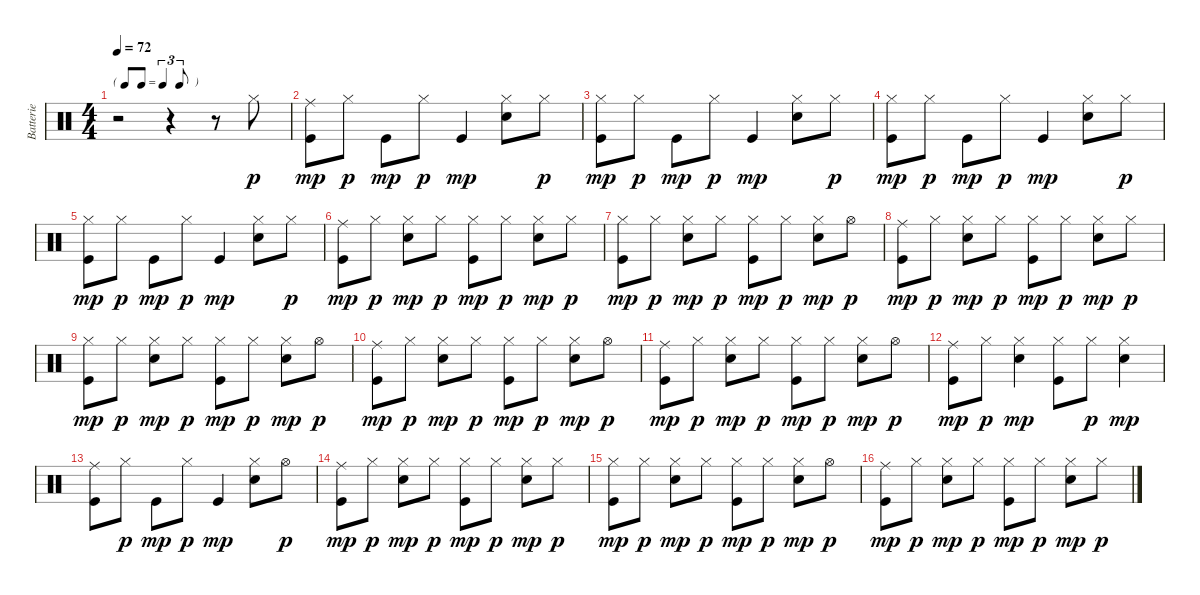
\track ("Batterie" "Batterie") {instrument percussion}
\staff {score}
\articulation defaults
\ts (4 4)
\tf triplet8th
\tempo 72
\clef neutral
\ks c
r.2{dy p} r.4 r.8 "Hi-Hat (closed)".8 |
("Ride (middle)" "Kick (hit)").8{dy mp} "Hi-Hat (closed)".8{dy p} "Kick (hit)".8{dy mp} "Hi-Hat (closed)".8{dy p} "Kick (hit)".4{dy mp} ("Hi-Hat (closed)" "Snare (hit) 2").8 "Hi-Hat (closed)".8{dy p} |
("Hi-Hat (closed)" "Kick (hit)").8{dy mp} "Hi-Hat (closed)".8{dy p} "Kick (hit)".8{dy mp} "Hi-Hat (closed)".8{dy p} "Kick (hit)".4{dy mp} ("Hi-Hat (closed)" "Snare (hit) 2").8 "Hi-Hat (closed)".8{dy p} |
("Hi-Hat (closed)" "Kick (hit)").8{dy mp} "Hi-Hat (closed)".8{dy p} "Kick (hit)".8{dy mp} "Hi-Hat (closed)".8{dy p} "Kick (hit)".4{dy mp} ("Hi-Hat (closed)" "Snare (hit) 2").8 "Hi-Hat (closed)".8{dy p} |
("Hi-Hat (closed)" "Kick (hit)").8{dy mp} "Hi-Hat (closed)".8{dy p} "Kick (hit)".8{dy mp} "Hi-Hat (closed)".8{dy p} "Kick (hit)".4{dy mp} ("Hi-Hat (closed)" "Snare (hit) 2").8 "Hi-Hat (closed)".8{dy p} |
("Ride (middle)" "Kick (hit)").8{dy mp} "Hi-Hat (closed)".8{dy p} ("Hi-Hat (closed)" "Snare (hit) 2").8{dy mp} "Hi-Hat (closed)".8{dy p} ("Hi-Hat (closed)" "Kick (hit)").8{dy mp} "Hi-Hat (closed)".8{dy p} ("Hi-Hat (closed)" "Snare (hit) 2").8{dy mp} "Hi-Hat (closed)".8{dy p} |
("Hi-Hat (closed)" "Kick (hit)").8{dy mp} "Hi-Hat (closed)".8{dy p} ("Hi-Hat (closed)" "Snare (hit) 2").8{dy mp} "Hi-Hat (closed)".8{dy p} ("Hi-Hat (closed)" "Kick (hit)").8{dy mp} "Hi-Hat (closed)".8{dy p} ("Hi-Hat (closed)" "Snare (hit) 2").8{dy mp} "Hi-Hat (open)".8{dy p} |
("Ride (middle)" "Kick (hit)").8{dy mp} "Hi-Hat (closed)".8{dy p} ("Hi-Hat (closed)" "Snare (hit) 2").8{dy mp} "Hi-Hat (closed)".8{dy p} ("Hi-Hat (closed)" "Kick (hit)").8{dy mp} "Hi-Hat (closed)".8{dy p} ("Hi-Hat (closed)" "Snare (hit) 2").8{dy mp} "Hi-Hat (closed)".8{dy p} |
("Hi-Hat (closed)" "Kick (hit)").8{dy mp} "Hi-Hat (closed)".8{dy p} ("Hi-Hat (closed)" "Snare (hit) 2").8{dy mp} "Hi-Hat (closed)".8{dy p} ("Hi-Hat (closed)" "Kick (hit)").8{dy mp} "Hi-Hat (closed)".8{dy p} ("Hi-Hat (closed)" "Snare (hit) 2").8{dy mp} "Hi-Hat (open)".8{dy p} |
("Ride (middle)" "Kick (hit)").8{dy mp} "Hi-Hat (closed)".8{dy p} ("Hi-Hat (closed)" "Snare (hit) 2").8{dy mp} "Hi-Hat (closed)".8{dy p} ("Hi-Hat (closed)" "Kick (hit)").8{dy mp} "Hi-Hat (closed)".8{dy p} ("Hi-Hat (closed)" "Snare (hit) 2").8{dy mp} "Hi-Hat (open)".8{dy p} |
("Ride (middle)" "Kick (hit)").8{dy mp} "Hi-Hat (closed)".8{dy p} ("Hi-Hat (closed)" "Snare (hit) 2").8{dy mp} "Hi-Hat (closed)".8{dy p} ("Hi-Hat (closed)" "Kick (hit)").8{dy mp} "Hi-Hat (closed)".8{dy p} ("Hi-Hat (closed)" "Snare (hit) 2").8{dy mp} "Hi-Hat (open)".8{dy p} |
("Ride (middle)" "Kick (hit)").8{dy mp} "Hi-Hat (closed)".8{dy p} ("Hi-Hat (closed)" "Snare (hit) 2").4{dy mp} ("Hi-Hat (closed)" "Kick (hit)").8 "Hi-Hat (closed)".8{dy p} ("Hi-Hat (closed)" "Snare (hit) 2").4{dy mp} |
("Ride (middle)" "Kick (hit)").8 "Hi-Hat (closed)".8{dy p} "Kick (hit)".8{dy mp} "Hi-Hat (closed)".8{dy p} "Kick (hit)".4{dy mp} ("Hi-Hat (closed)" "Snare (hit) 2").8 "Hi-Hat (open)".8{dy p} |
("Ride (middle)" "Kick (hit)").8{dy mp} "Hi-Hat (closed)".8{dy p} ("Hi-Hat (closed)" "Snare (hit) 2").8{dy mp} "Hi-Hat (closed)".8{dy p} ("Hi-Hat (closed)" "Kick (hit)").8{dy mp} "Hi-Hat (closed)".8{dy p} ("Hi-Hat (closed)" "Snare (hit) 2").8{dy mp} "Hi-Hat (closed)".8{dy p} |
("Hi-Hat (closed)" "Kick (hit)").8{dy mp} "Hi-Hat (closed)".8{dy p} ("Hi-Hat (closed)" "Snare (hit) 2").8{dy mp} "Hi-Hat (closed)".8{dy p} ("Hi-Hat (closed)" "Kick (hit)").8{dy mp} "Hi-Hat (closed)".8{dy p} ("Hi-Hat (closed)" "Snare (hit) 2").8{dy mp} "Hi-Hat (open)".8{dy p} |
("Ride (middle)" "Kick (hit)").8{dy mp} "Hi-Hat (closed)".8{dy p} ("Hi-Hat (closed)" "Snare (hit) 2").8{dy mp} "Hi-Hat (closed)".8{dy p} ("Hi-Hat (closed)" "Kick (hit)").8{dy mp} "Hi-Hat (closed)".8{dy p} ("Hi-Hat (closed)" "Snare (hit) 2").8{dy mp} "Hi-Hat (closed)".8{dy p}
